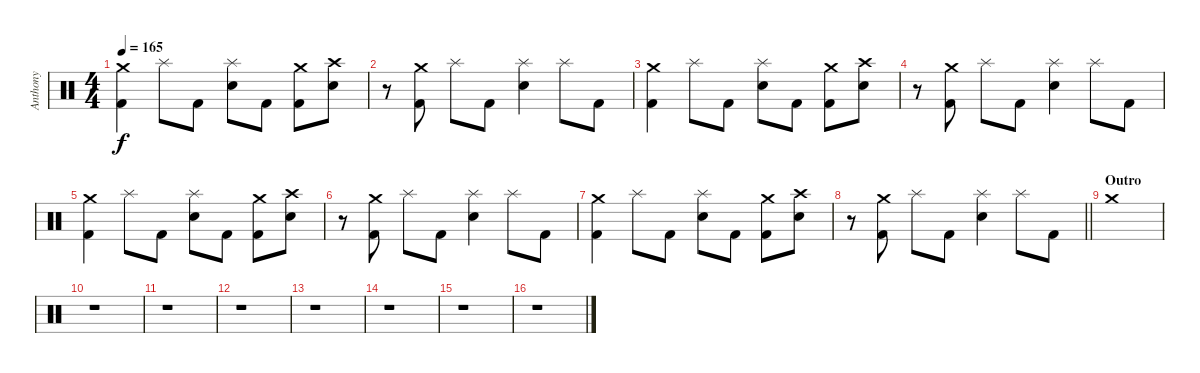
\track ("Anthony" "Anthony") {instrument percussion}
\staff {score}
\articulation defaults
\ts (4 4)
\tempo 165
\clef neutral
\ks c
("Crash medium (hit)" "Kick (hit) 2").4{dy f} "Splash (hit)".8 "Kick (hit) 2".8 ("Splash (hit)" "Electric Snare (hit)").8 "Kick (hit) 2".8 ("Crash medium (hit)" "Kick (hit) 2").8 ("Crash high (hit)" "Electric Snare (hit)").8 |
r.8 ("Crash medium (hit)" "Kick (hit) 2").8 "Splash (hit)".8 "Kick (hit) 2".8 ("Splash (hit)" "Electric Snare (hit)").4 "Splash (hit)".8 "Kick (hit) 2".8 |
("Crash medium (hit)" "Kick (hit) 2").4 "Splash (hit)".8 "Kick (hit) 2".8 ("Splash (hit)" "Electric Snare (hit)").8 "Kick (hit) 2".8 ("Crash medium (hit)" "Kick (hit) 2").8 ("Crash high (hit)" "Electric Snare (hit)").8 |
r.8 ("Crash medium (hit)" "Kick (hit) 2").8 "Splash (hit)".8 "Kick (hit) 2".8 ("Splash (hit)" "Electric Snare (hit)").4 "Splash (hit)".8 "Kick (hit) 2".8 |
("Crash medium (hit)" "Kick (hit) 2").4 "Splash (hit)".8 "Kick (hit) 2".8 ("Splash (hit)" "Electric Snare (hit)").8 "Kick (hit) 2".8 ("Crash medium (hit)" "Kick (hit) 2").8 ("Crash high (hit)" "Electric Snare (hit)").8 |
r.8 ("Crash medium (hit)" "Kick (hit) 2").8 "Splash (hit)".8 "Kick (hit) 2".8 ("Splash (hit)" "Electric Snare (hit)").4 "Splash (hit)".8 "Kick (hit) 2".8 |
("Crash medium (hit)" "Kick (hit) 2").4 "Splash (hit)".8 "Kick (hit) 2".8 ("Splash (hit)" "Electric Snare (hit)").8 "Kick (hit) 2".8 ("Crash medium (hit)" "Kick (hit) 2").8 ("Crash high (hit)" "Electric Snare (hit)").8 |
\barLineRight lightlight
r.8 ("Crash medium (hit)" "Kick (hit) 2").8 "Splash (hit)".8 "Kick (hit) 2".8 ("Splash (hit)" "Electric Snare (hit)").4 "Splash (hit)".8 "Kick (hit) 2".8 |
\section ("" "Outro")
"Crash medium (hit)".1 |
r.1 |
r.1 |
r.1 |
r.1 |
r.1 |
r.1 |
r.1
